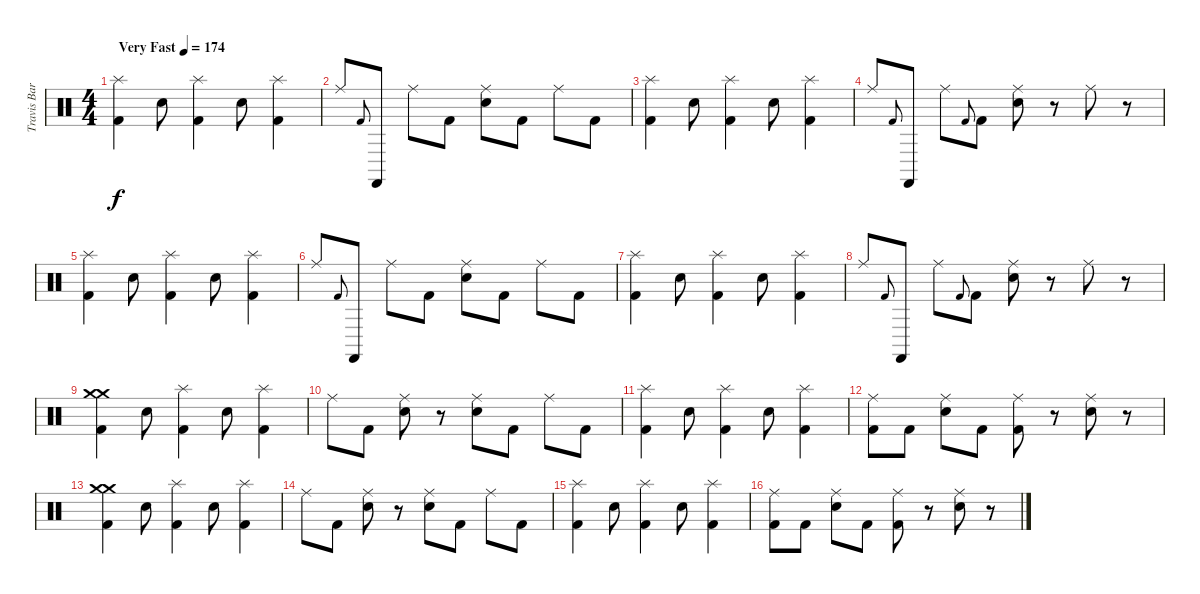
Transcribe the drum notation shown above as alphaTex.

\track ("Travis Barker - Drums" "Travis Bar") {instrument percussion}
\staff {score}
\articulation defaults
\ts (4 4)
\tempo (174 "Very Fast")
\clef neutral
\ks c
("Splash (hit)" "Kick (hit) 2").4{dy f} "Electric Snare (hit)".8 ("Splash (hit)" "Kick (hit) 2").4 "Electric Snare (hit)".8 ("Splash (hit)" "Kick (hit) 2").4 |
"Ride (middle)".8 "Kick (hit) 2".8{gr onbeat} "Castanets (hit)".8 "Ride (middle)".8 "Kick (hit) 2".8 ("Ride (middle)" "Electric Snare (hit)").8 "Kick (hit) 2".8 "Ride (middle)".8 "Kick (hit) 2".8 |
("Splash (hit)" "Kick (hit) 2").4 "Electric Snare (hit)".8 ("Splash (hit)" "Kick (hit) 2").4 "Electric Snare (hit)".8 ("Splash (hit)" "Kick (hit) 2").4 |
"Ride (middle)".8 "Kick (hit) 2".8{gr onbeat} "Castanets (hit)".8 "Ride (middle)".8 "Kick (hit) 2".8{gr onbeat} "Kick (hit) 2".8 ("Ride (middle)" "Electric Snare (hit)").8 r.8 "Ride (middle)".8 r.8 |
("Splash (hit)" "Kick (hit) 2").4 "Electric Snare (hit)".8 ("Splash (hit)" "Kick (hit) 2").4 "Electric Snare (hit)".8 ("Splash (hit)" "Kick (hit) 2").4 |
"Ride (middle)".8 "Kick (hit) 2".8{gr onbeat} "Castanets (hit)".8 "Ride (middle)".8 "Kick (hit) 2".8 ("Ride (middle)" "Electric Snare (hit)").8 "Kick (hit) 2".8 "Ride (middle)".8 "Kick (hit) 2".8 |
("Splash (hit)" "Kick (hit) 2").4 "Electric Snare (hit)".8 ("Splash (hit)" "Kick (hit) 2").4 "Electric Snare (hit)".8 ("Splash (hit)" "Kick (hit) 2").4 |
"Ride (middle)".8 "Kick (hit) 2".8{gr onbeat} "Castanets (hit)".8 "Ride (middle)".8 "Kick (hit) 2".8{gr onbeat} "Kick (hit) 2".8 ("Ride (middle)" "Electric Snare (hit)").8 r.8 "Ride (middle)".8 r.8 |
("Crash medium (hit)" "Crash medium (hit)" "Kick (hit) 2").4 "Electric Snare (hit)".8 ("Splash (hit)" "Kick (hit) 2").4 "Electric Snare (hit)".8 ("Splash (hit)" "Kick (hit) 2").4 |
"Ride (middle)".8 "Kick (hit) 2".8 ("Ride (middle)" "Electric Snare (hit)").8 r.8 ("Ride (middle)" "Electric Snare (hit)").8 "Kick (hit) 2".8 "Ride (middle)".8 "Kick (hit) 2".8 |
("Splash (hit)" "Kick (hit) 2").4 "Electric Snare (hit)".8 ("Splash (hit)" "Kick (hit) 2").4 "Electric Snare (hit)".8 ("Splash (hit)" "Kick (hit) 2").4 |
("Ride (middle)" "Kick (hit) 2").8 "Kick (hit) 2".8 ("Ride (middle)" "Electric Snare (hit)").8 "Kick (hit) 2".8 ("Ride (middle)" "Kick (hit) 2").8 r.8 ("Ride (middle)" "Electric Snare (hit)").8 r.8 |
("Crash medium (hit)" "Crash medium (hit)" "Kick (hit) 2").4 "Electric Snare (hit)".8 ("Splash (hit)" "Kick (hit) 2").4 "Electric Snare (hit)".8 ("Splash (hit)" "Kick (hit) 2").4 |
"Ride (middle)".8 "Kick (hit) 2".8 ("Ride (middle)" "Electric Snare (hit)").8 r.8 ("Ride (middle)" "Electric Snare (hit)").8 "Kick (hit) 2".8 "Ride (middle)".8 "Kick (hit) 2".8 |
("Splash (hit)" "Kick (hit) 2").4 "Electric Snare (hit)".8 ("Splash (hit)" "Kick (hit) 2").4 "Electric Snare (hit)".8 ("Splash (hit)" "Kick (hit) 2").4 |
("Ride (middle)" "Kick (hit) 2").8 "Kick (hit) 2".8 ("Ride (middle)" "Electric Snare (hit)").8 "Kick (hit) 2".8 ("Ride (middle)" "Kick (hit) 2").8 r.8 ("Ride (middle)" "Electric Snare (hit)").8 r.8
